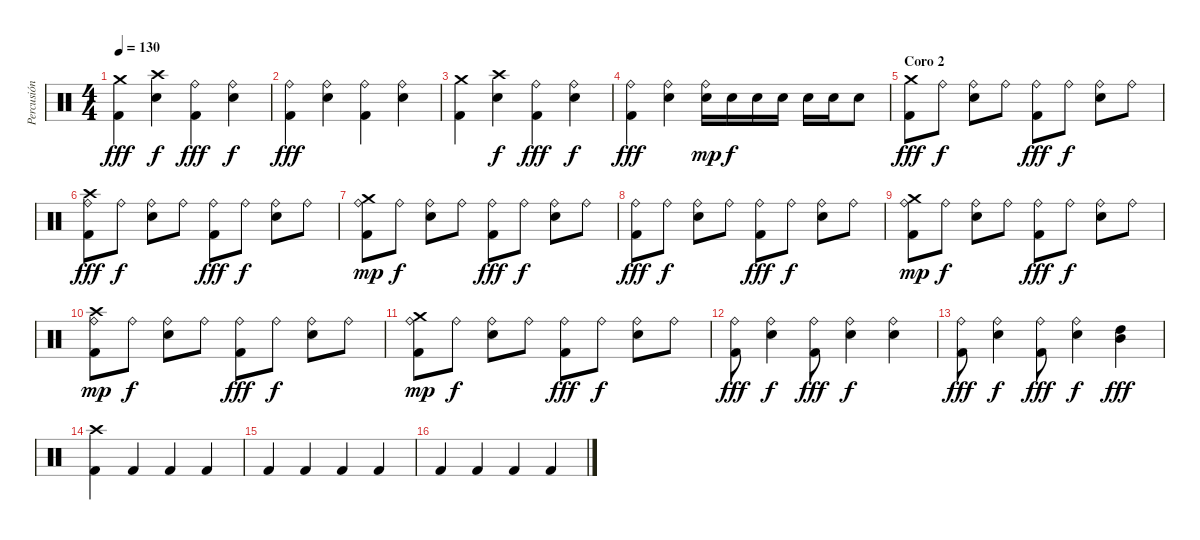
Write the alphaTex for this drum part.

\track ("Percusión" "Percusión") {instrument percussion}
\staff {score}
\articulation defaults
\ts (4 4)
\tempo 130
\clef neutral
\ks c
("Crash medium (hit)" "Kick (hit) 2").4{dy fff} ("Crash high (hit)" "Snare (hit) 2").4{dy f} ("Ride (bell)" "Kick (hit) 2").4{dy fff} ("Ride (bell)" "Snare (hit) 2").4{dy f} |
("Ride (bell)" "Kick (hit) 2").4{dy fff} ("Ride (bell)" "Snare (hit) 2").4 ("Ride (bell)" "Kick (hit) 2").4 ("Ride (bell)" "Snare (hit) 2").4 |
("Crash medium (hit)" "Kick (hit) 2").4 ("Crash high (hit)" "Snare (hit) 2").4{dy f} ("Ride (bell)" "Kick (hit) 2").4{dy fff} ("Ride (bell)" "Snare (hit) 2").4{dy f} |
("Ride (bell)" "Kick (hit) 2").4{dy fff} ("Ride (bell)" "Snare (hit) 2").4 ("Ride (bell)" "Snare (hit) 2").16{dy mp} "Snare (hit) 2".16{dy f} "Snare (hit) 2".16 "Snare (hit) 2".16 "Snare (hit) 2".16 "Snare (hit) 2".16 "Snare (hit) 2".8 |
\section ("" "Coro 2")
("Crash medium (hit)" "Kick (hit) 2").8{dy fff} "Ride (bell)".8{dy f} ("Ride (bell)" "Snare (hit) 2").8 "Ride (bell)".8 ("Ride (bell)" "Kick (hit) 2").8{dy fff} "Ride (bell)".8{dy f} ("Ride (bell)" "Snare (hit) 2").8 "Ride (bell)".8 |
("Ride (bell)" "Kick (hit) 2" "Crash high (hit)").8{dy fff} "Ride (bell)".8{dy f} ("Ride (bell)" "Snare (hit) 2").8 "Ride (bell)".8 ("Ride (bell)" "Kick (hit) 2").8{dy fff} "Ride (bell)".8{dy f} ("Ride (bell)" "Snare (hit) 2").8 "Ride (bell)".8 |
("Ride (bell)" "Kick (hit) 2" "Crash medium (hit)").8{dy mp} "Ride (bell)".8{dy f} ("Ride (bell)" "Snare (hit) 2").8 "Ride (bell)".8 ("Ride (bell)" "Kick (hit) 2").8{dy fff} "Ride (bell)".8{dy f} ("Ride (bell)" "Snare (hit) 2").8 "Ride (bell)".8 |
("Ride (bell)" "Kick (hit) 2").8{dy fff} "Ride (bell)".8{dy f} ("Ride (bell)" "Snare (hit) 2").8 "Ride (bell)".8 ("Ride (bell)" "Kick (hit) 2").8{dy fff} "Ride (bell)".8{dy f} ("Ride (bell)" "Snare (hit) 2").8 "Ride (bell)".8 |
("Ride (bell)" "Kick (hit) 2" "Crash medium (hit)").8{dy mp} "Ride (bell)".8{dy f} ("Ride (bell)" "Snare (hit) 2").8 "Ride (bell)".8 ("Ride (bell)" "Kick (hit) 2").8{dy fff} "Ride (bell)".8{dy f} ("Ride (bell)" "Snare (hit) 2").8 "Ride (bell)".8 |
("Ride (bell)" "Kick (hit) 2" "Crash high (hit)").8{dy mp} "Ride (bell)".8{dy f} ("Ride (bell)" "Snare (hit) 2").8 "Ride (bell)".8 ("Ride (bell)" "Kick (hit) 2").8{dy fff} "Ride (bell)".8{dy f} ("Ride (bell)" "Snare (hit) 2").8 "Ride (bell)".8 |
("Ride (bell)" "Kick (hit) 2" "Crash medium (hit)").8{dy mp} "Ride (bell)".8{dy f} ("Ride (bell)" "Snare (hit) 2").8 "Ride (bell)".8 ("Ride (bell)" "Kick (hit) 2").8{dy fff} "Ride (bell)".8{dy f} ("Ride (bell)" "Snare (hit) 2").8 "Ride (bell)".8 |
("Ride (bell)" "Kick (hit) 2").8{dy fff} ("Ride (bell)" "Snare (hit) 2").4{dy f} ("Ride (bell)" "Kick (hit) 2").8{dy fff} ("Ride (bell)" "Snare (hit) 2").4{dy f} ("Ride (bell)" "Snare (hit) 2").4 |
("Ride (bell)" "Kick (hit) 2").8{dy fff} ("Ride (bell)" "Snare (hit) 2").4{dy f} ("Ride (bell)" "Kick (hit) 2").8{dy fff} ("Ride (bell)" "Snare (hit) 2").4{dy f} ("Mid Tom (hit)" "High Tom (hit)").4{dy fff} |
("Crash high (hit)" "Kick (hit) 2").4 "Kick (hit) 2".4 "Kick (hit) 2".4 "Kick (hit) 2".4 |
"Kick (hit) 2".4 "Kick (hit) 2".4 "Kick (hit) 2".4 "Kick (hit) 2".4 |
"Kick (hit) 2".4 "Kick (hit) 2".4 "Kick (hit) 2".4 "Kick (hit) 2".4
